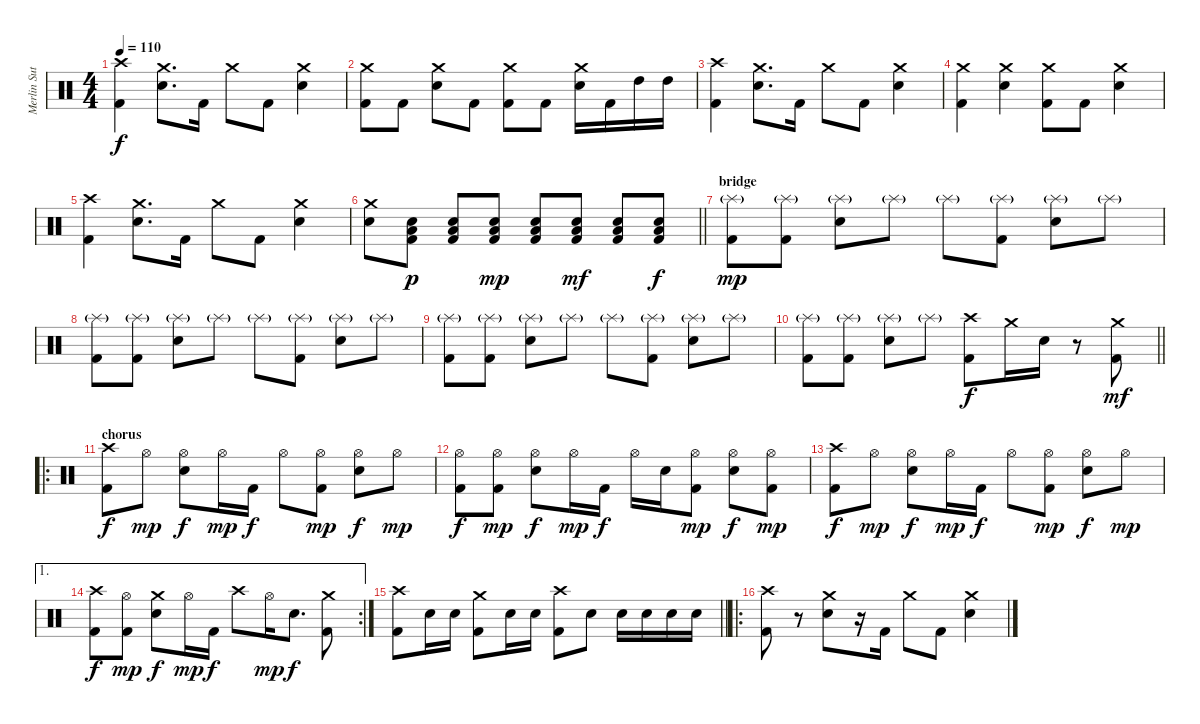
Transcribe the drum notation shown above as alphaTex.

\track ("Merlin Sutter" "Merlin Sut") {instrument percussion}
\staff {score}
\articulation defaults
\ts (4 4)
\tempo 110
\clef neutral
\ks c
("Crash high (hit)" "Kick (hit) 2").4{dy f} ("Crash medium (hit)" "Snare (hit) 2").8{d} "Kick (hit) 2".16 "Crash medium (hit)".8 "Kick (hit) 2".8 ("Crash medium (hit)" "Snare (hit) 2").4 |
("Crash medium (hit)" "Kick (hit) 2").8 "Kick (hit) 2".8 ("Crash medium (hit)" "Snare (hit) 2").8 "Kick (hit) 2".8 ("Crash medium (hit)" "Kick (hit) 2").8 "Kick (hit) 2".8 ("Crash medium (hit)" "Snare (hit) 2").16 "Kick (hit) 2".16 "High Tom (hit)".16 "High Tom (hit)".16 |
("Crash high (hit)" "Kick (hit) 2").4 ("Crash medium (hit)" "Snare (hit) 2").8{d} "Kick (hit) 2".16 "Crash medium (hit)".8 "Kick (hit) 2".8 ("Crash medium (hit)" "Snare (hit) 2").4 |
("Crash medium (hit)" "Kick (hit) 2").4 ("Crash medium (hit)" "Snare (hit) 2").4 ("Crash medium (hit)" "Kick (hit) 2").8 "Kick (hit) 2".8 ("Crash medium (hit)" "Snare (hit) 2").4 |
("Crash high (hit)" "Kick (hit) 2").4 ("Crash medium (hit)" "Snare (hit) 2").8{d} "Kick (hit) 2".16 "Crash medium (hit)".8 "Kick (hit) 2".8 ("Crash medium (hit)" "Snare (hit) 2").4 |
\barLineRight lightlight
("Crash medium (hit)" "Snare (hit) 2").8 ("Low Tom (hit)" "Snare (hit) 2" "Kick (hit) 2").8{dy p} ("Low Tom (hit)" "Snare (hit) 2" "Kick (hit) 2").8 ("Low Tom (hit)" "Snare (hit) 2" "Kick (hit) 2").8{dy mp} ("Low Tom (hit)" "Snare (hit) 2" "Kick (hit) 2").8 ("Low Tom (hit)" "Snare (hit) 2" "Kick (hit) 2").8{dy mf} ("Low Tom (hit)" "Snare (hit) 2" "Kick (hit) 2").8 ("Low Tom (hit)" "Snare (hit) 2" "Kick (hit) 2").8{dy f} |
\section ("" "bridge")
("Splash (hit)"{g} "Kick (hit) 2").8{dy mp} ("Splash (hit)"{g} "Kick (hit) 2").8 ("Splash (hit)"{g} "Snare (hit) 2").8 "Splash (hit)"{g}.8 "Splash (hit)"{g}.8 ("Splash (hit)"{g} "Kick (hit) 2").8 ("Splash (hit)"{g} "Snare (hit) 2").8 "Splash (hit)"{g}.8 |
("Splash (hit)"{g} "Kick (hit) 2").8 ("Splash (hit)"{g} "Kick (hit) 2").8 ("Splash (hit)"{g} "Snare (hit) 2").8 "Splash (hit)"{g}.8 "Splash (hit)"{g}.8 ("Splash (hit)"{g} "Kick (hit) 2").8 ("Splash (hit)"{g} "Snare (hit) 2").8 "Splash (hit)"{g}.8 |
("Splash (hit)"{g} "Kick (hit) 2").8 ("Splash (hit)"{g} "Kick (hit) 2").8 ("Splash (hit)"{g} "Snare (hit) 2").8 "Splash (hit)"{g}.8 "Splash (hit)"{g}.8 ("Splash (hit)"{g} "Kick (hit) 2").8 ("Splash (hit)"{g} "Snare (hit) 2").8 "Splash (hit)"{g}.8 |
\barLineRight lightlight
("Splash (hit)"{g} "Kick (hit) 2").8 ("Splash (hit)"{g} "Kick (hit) 2").8 ("Splash (hit)"{g} "Snare (hit) 2").8 "Splash (hit)"{g}.8 ("Crash high (hit)" "Kick (hit) 2").8{dy f} "Crash medium (hit)".16 "Snare (hit) 2".16 r.8 ("Crash medium (hit)" "Kick (hit) 2").8{dy mf} |
\ro
\section ("" "chorus")
("Crash high (hit)" "Kick (hit) 2").8{dy f} "Hi-Hat (open)".8{dy mp} ("Hi-Hat (open)" "Snare (hit) 2").8{dy f} "Hi-Hat (open)".16{dy mp} "Kick (hit) 2".16{dy f} "Hi-Hat (open)".8 ("Hi-Hat (open)" "Kick (hit) 2").8{dy mp} ("Hi-Hat (open)" "Snare (hit) 2").8{dy f} "Hi-Hat (open)".8{dy mp} |
("Hi-Hat (open)" "Kick (hit) 2").8{dy f} ("Hi-Hat (open)" "Kick (hit) 2").8{dy mp} ("Hi-Hat (open)" "Snare (hit) 2").8{dy f} "Hi-Hat (open)".16{dy mp} "Kick (hit) 2".16{dy f} "Hi-Hat (open)".16 "Snare (hit) 2".16 ("Hi-Hat (open)" "Kick (hit) 2").8{dy mp} ("Hi-Hat (open)" "Snare (hit) 2").8{dy f} ("Hi-Hat (open)" "Kick (hit) 2").8{dy mp} |
("Crash high (hit)" "Kick (hit) 2").8{dy f} "Hi-Hat (open)".8{dy mp} ("Hi-Hat (open)" "Snare (hit) 2").8{dy f} "Hi-Hat (open)".16{dy mp} "Kick (hit) 2".16{dy f} "Hi-Hat (open)".8 ("Hi-Hat (open)" "Kick (hit) 2").8{dy mp} ("Hi-Hat (open)" "Snare (hit) 2").8{dy f} "Hi-Hat (open)".8{dy mp} |
\ae 1
\rc 2
("Crash high (hit)" "Kick (hit) 2").8{dy f} ("Hi-Hat (open)" "Kick (hit) 2").8{dy mp} ("Crash medium (hit)" "Snare (hit) 2").8{dy f} "Hi-Hat (open)".16{dy mp} "Kick (hit) 2".16{dy f} "Crash high (hit)".8 "Hi-Hat (open)".16{dy mp} "Snare (hit) 2".8{d dy f} ("Crash medium (hit)" "Kick (hit) 2").8 |
\barLineRight lightlight
("Crash high (hit)" "Kick (hit) 2").8 "Snare (hit) 2".16 "Snare (hit) 2".16 ("Crash medium (hit)" "Kick (hit) 2").8 "Snare (hit) 2".16 "Snare (hit) 2".16 ("Crash high (hit)" "Kick (hit) 2").8 "Snare (hit) 2".8 "Snare (hit) 2".16 "Snare (hit) 2".16 "Snare (hit) 2".16 "Snare (hit) 2".16 |
\ro
\section ("" "")
("Crash high (hit)" "Kick (hit) 2").8 r.8 ("Crash medium (hit)" "Snare (hit) 2").8 r.16 "Kick (hit) 2".16 "Crash medium (hit)".8 "Kick (hit) 2".8 ("Crash medium (hit)" "Snare (hit) 2").4
